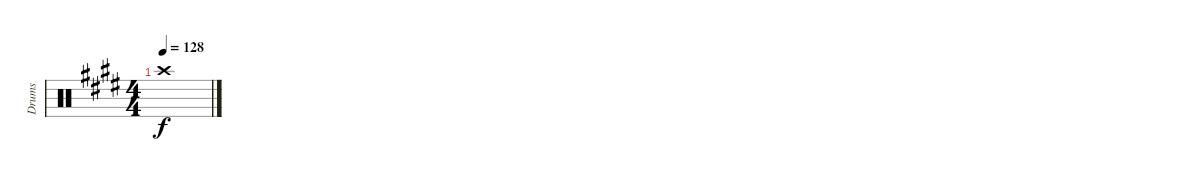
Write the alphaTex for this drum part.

\track ("Drums" "Drums") {instrument percussion}
\staff {score}
\articulation defaults
\ts (4 4)
\tempo 128
\clef neutral
\ks e "Crash high (hit)".1{dy f}
